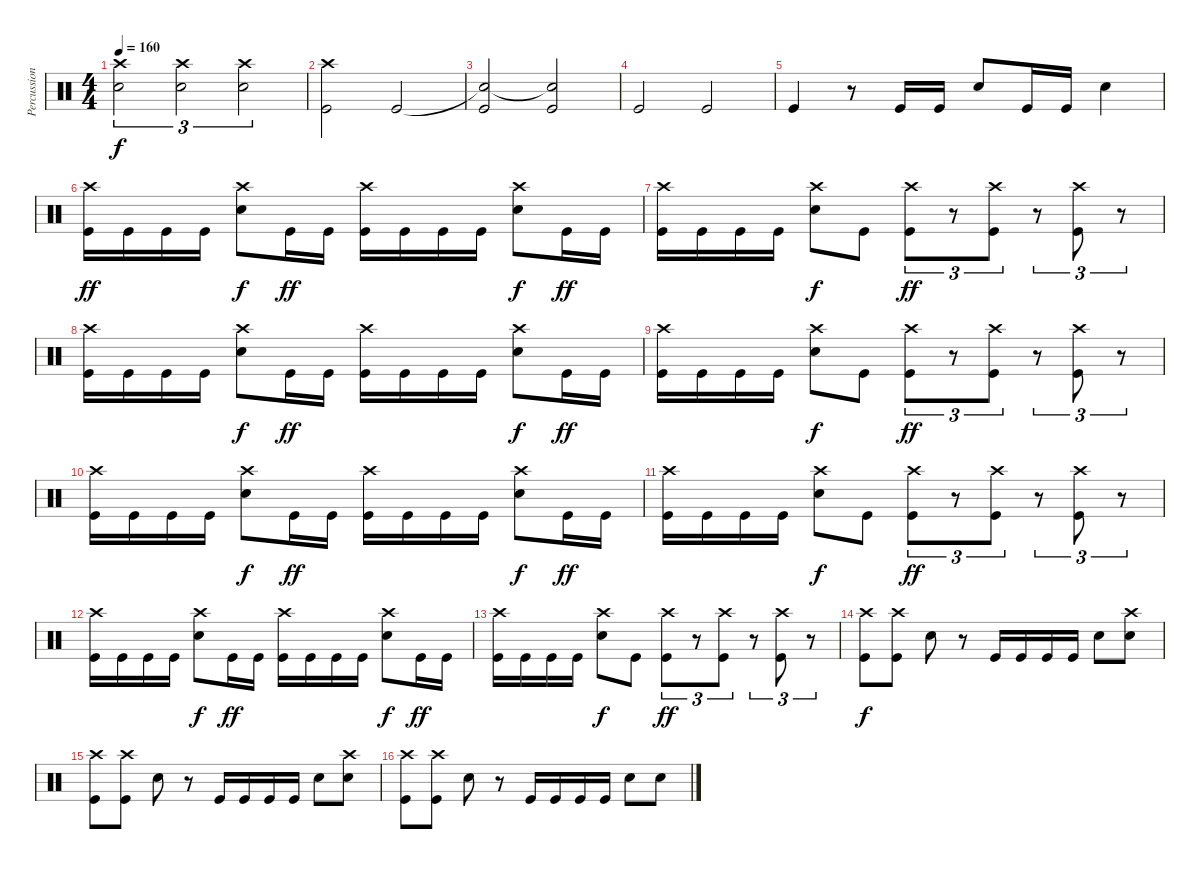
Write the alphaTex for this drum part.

\track ("Percussion" "Percussion") {instrument percussion}
\staff {score}
\articulation defaults
\ts (4 4)
\tempo 160
\clef neutral
\ks c
("Crash high (hit)" "Electric Snare (hit)").2{tu (3 2) dy f} ("Crash high (hit)" "Electric Snare (hit)").2{tu (3 2)} ("Crash high (hit)" "Electric Snare (hit)").2{tu (3 2)} |
("Crash high (hit)" "Kick (hit)").2 "Kick (hit)".2 |
("Snare (hit)"{t} "Kick (hit)").2 ("Snare (hit)"{t} "Kick (hit)").2 |
"Kick (hit)".2 "Kick (hit)".2 |
"Kick (hit)".4 r.8 "Kick (hit)".16 "Kick (hit)".16 "Electric Snare (hit)".8 "Kick (hit)".16 "Kick (hit)".16 "Electric Snare (hit)".4 |
("Crash high (hit)" "Kick (hit)").16{dy ff} "Kick (hit)".16 "Kick (hit)".16 "Kick (hit)".16 ("Crash high (hit)" "Electric Snare (hit)").8{dy f} "Kick (hit)".16{dy ff} "Kick (hit)".16 ("Crash high (hit)" "Kick (hit)").16 "Kick (hit)".16 "Kick (hit)".16 "Kick (hit)".16 ("Crash high (hit)" "Electric Snare (hit)").8{dy f} "Kick (hit)".16{dy ff} "Kick (hit)".16 |
("Crash high (hit)" "Kick (hit)").16 "Kick (hit)".16 "Kick (hit)".16 "Kick (hit)".16 ("Crash high (hit)" "Electric Snare (hit)").8{dy f} "Kick (hit)".8 ("Crash high (hit)" "Kick (hit)").8{tu (3 2) dy ff} r.8{tu (3 2)} ("Crash high (hit)" "Kick (hit)").8{tu (3 2)} r.8{tu (3 2)} ("Crash high (hit)" "Kick (hit)").8{tu (3 2)} r.8{tu (3 2)} |
("Crash high (hit)" "Kick (hit)").16 "Kick (hit)".16 "Kick (hit)".16 "Kick (hit)".16 ("Crash high (hit)" "Electric Snare (hit)").8{dy f} "Kick (hit)".16{dy ff} "Kick (hit)".16 ("Crash high (hit)" "Kick (hit)").16 "Kick (hit)".16 "Kick (hit)".16 "Kick (hit)".16 ("Crash high (hit)" "Electric Snare (hit)").8{dy f} "Kick (hit)".16{dy ff} "Kick (hit)".16 |
("Crash high (hit)" "Kick (hit)").16 "Kick (hit)".16 "Kick (hit)".16 "Kick (hit)".16 ("Crash high (hit)" "Electric Snare (hit)").8{dy f} "Kick (hit)".8 ("Crash high (hit)" "Kick (hit)").8{tu (3 2) dy ff} r.8{tu (3 2)} ("Crash high (hit)" "Kick (hit)").8{tu (3 2)} r.8{tu (3 2)} ("Crash high (hit)" "Kick (hit)").8{tu (3 2)} r.8{tu (3 2)} |
("Crash high (hit)" "Kick (hit)").16 "Kick (hit)".16 "Kick (hit)".16 "Kick (hit)".16 ("Crash high (hit)" "Electric Snare (hit)").8{dy f} "Kick (hit)".16{dy ff} "Kick (hit)".16 ("Crash high (hit)" "Kick (hit)").16 "Kick (hit)".16 "Kick (hit)".16 "Kick (hit)".16 ("Crash high (hit)" "Electric Snare (hit)").8{dy f} "Kick (hit)".16{dy ff} "Kick (hit)".16 |
("Crash high (hit)" "Kick (hit)").16 "Kick (hit)".16 "Kick (hit)".16 "Kick (hit)".16 ("Crash high (hit)" "Electric Snare (hit)").8{dy f} "Kick (hit)".8 ("Crash high (hit)" "Kick (hit)").8{tu (3 2) dy ff} r.8{tu (3 2)} ("Crash high (hit)" "Kick (hit)").8{tu (3 2)} r.8{tu (3 2)} ("Crash high (hit)" "Kick (hit)").8{tu (3 2)} r.8{tu (3 2)} |
("Crash high (hit)" "Kick (hit)").16 "Kick (hit)".16 "Kick (hit)".16 "Kick (hit)".16 ("Crash high (hit)" "Electric Snare (hit)").8{dy f} "Kick (hit)".16{dy ff} "Kick (hit)".16 ("Crash high (hit)" "Kick (hit)").16 "Kick (hit)".16 "Kick (hit)".16 "Kick (hit)".16 ("Crash high (hit)" "Electric Snare (hit)").8{dy f} "Kick (hit)".16{dy ff} "Kick (hit)".16 |
("Crash high (hit)" "Kick (hit)").16 "Kick (hit)".16 "Kick (hit)".16 "Kick (hit)".16 ("Crash high (hit)" "Electric Snare (hit)").8{dy f} "Kick (hit)".8 ("Crash high (hit)" "Kick (hit)").8{tu (3 2) dy ff} r.8{tu (3 2)} ("Crash high (hit)" "Kick (hit)").8{tu (3 2)} r.8{tu (3 2)} ("Crash high (hit)" "Kick (hit)").8{tu (3 2)} r.8{tu (3 2)} |
("Crash high (hit)" "Kick (hit)").8{dy f} ("Crash high (hit)" "Kick (hit)").8 "Electric Snare (hit)".8 r.8 "Kick (hit)".16 "Kick (hit)".16 "Kick (hit)".16 "Kick (hit)".16 "Electric Snare (hit)".8 ("Crash high (hit)" "Electric Snare (hit)").8 |
("Crash high (hit)" "Kick (hit)").8 ("Crash high (hit)" "Kick (hit)").8 "Electric Snare (hit)".8 r.8 "Kick (hit)".16 "Kick (hit)".16 "Kick (hit)".16 "Kick (hit)".16 "Electric Snare (hit)".8 ("Crash high (hit)" "Electric Snare (hit)").8 |
("Crash high (hit)" "Kick (hit)").8 ("Crash high (hit)" "Kick (hit)").8 "Electric Snare (hit)".8 r.8 "Kick (hit)".16 "Kick (hit)".16 "Kick (hit)".16 "Kick (hit)".16 "Electric Snare (hit)".8 "Electric Snare (hit)".8
